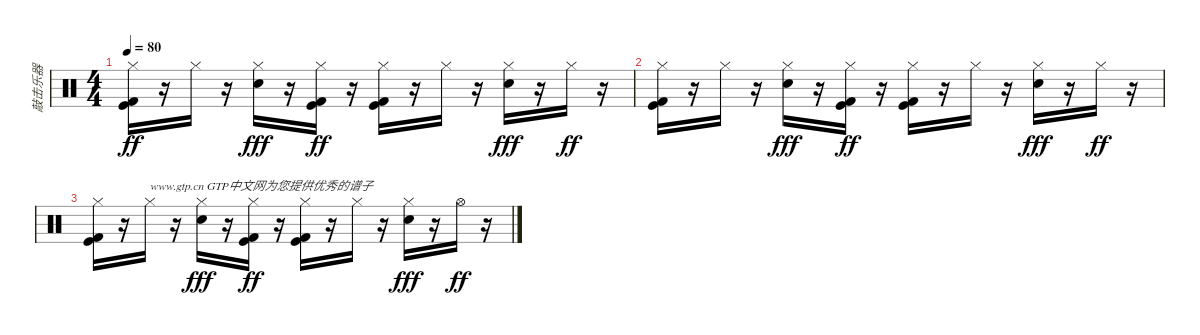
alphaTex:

\track ("敲击乐器" "敲击乐器") {instrument percussion}
\staff {score}
\articulation defaults
\ts (4 4)
\tempo 80
\clef neutral
\ks c
("Kick (hit)" "Kick (hit) 2" "Hi-Hat (closed)").16{dy ff} r.16 "Hi-Hat (closed)".16 r.16 ("Hi-Hat (closed)" "Electric Snare (hit)").16{dy fff} r.16 ("Kick (hit)" "Kick (hit) 2" "Hi-Hat (closed)").16{dy ff} r.16 ("Kick (hit)" "Kick (hit) 2" "Hi-Hat (closed)").16 r.16 "Hi-Hat (closed)".16 r.16 ("Hi-Hat (closed)" "Electric Snare (hit)").16{dy fff} r.16 "Hi-Hat (closed)".16{dy ff} r.16 |
("Kick (hit)" "Kick (hit) 2" "Hi-Hat (closed)").16 r.16 "Hi-Hat (closed)".16 r.16 ("Hi-Hat (closed)" "Electric Snare (hit)").16{dy fff} r.16 ("Kick (hit)" "Kick (hit) 2" "Hi-Hat (closed)").16{dy ff} r.16 ("Kick (hit)" "Kick (hit) 2" "Hi-Hat (closed)").16 r.16 "Hi-Hat (closed)".16 r.16 ("Hi-Hat (closed)" "Electric Snare (hit)").16{dy fff} r.16 "Hi-Hat (closed)".16{dy ff} r.16 |
("Kick (hit)" "Kick (hit) 2" "Hi-Hat (closed)").16 r.16 "Hi-Hat (closed)".16{txt "www.gtp.cn GTP中文网为您提供优秀的谱子"} r.16 ("Hi-Hat (closed)" "Electric Snare (hit)").16{dy fff} r.16 ("Kick (hit)" "Kick (hit) 2" "Hi-Hat (closed)").16{dy ff} r.16 ("Kick (hit)" "Kick (hit) 2" "Hi-Hat (closed)").16 r.16 "Hi-Hat (closed)".16 r.16 ("Hi-Hat (closed)" "Electric Snare (hit)").16{dy fff} r.16 "Hi-Hat (open)".16{dy ff} r.16
